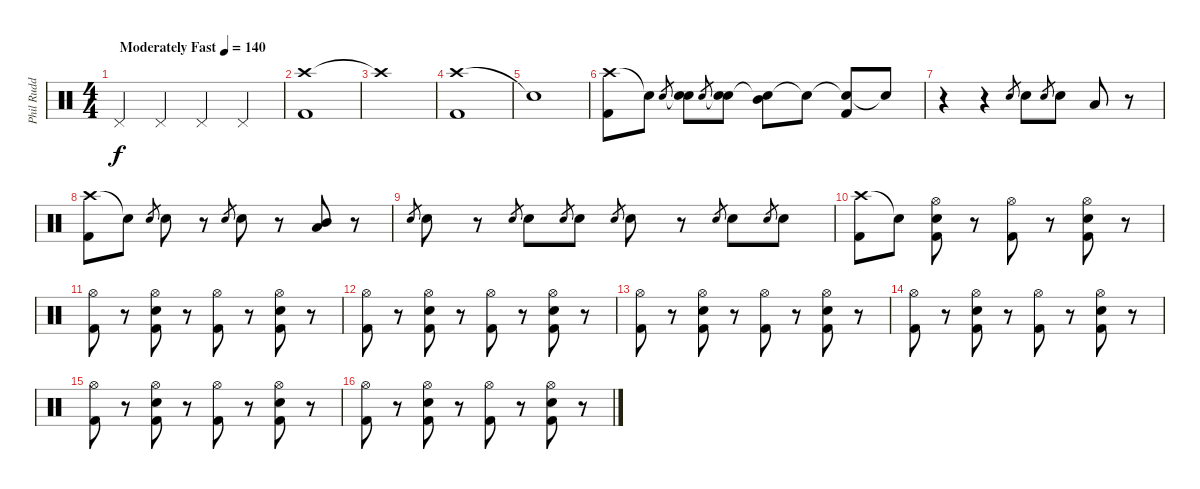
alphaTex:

\track ("Phil Rudd" "Phil Rudd") {instrument percussion}
\staff {score}
\articulation defaults
\ts (4 4)
\tempo (140 "Moderately Fast")
\clef neutral
\ks c "Pedal Hi-Hat (hit)".4{dy f} "Pedal Hi-Hat (hit)".4 "Pedal Hi-Hat (hit)".4 "Pedal Hi-Hat (hit)".4
|
("Crash high (hit)" "Kick (hit) 2").1 |
"Crash high (hit)"{t}.1 |
("Crash high (hit)" "Kick (hit) 2").1 |
"Snare (hit)"{t}.1 |
("Crash high (hit)" "Kick (hit) 2").8 "Snare (hit)"{t}.8 "Electric Snare (hit)".8{gr} ("Snare (hit)"{t} "Electric Snare (hit)").8 "Electric Snare (hit)".8{gr} ("Snare (hit)"{t} "Electric Snare (hit)").8 ("Snare (hit)"{t} "Mid Tom (hit)").8 "Snare (hit)"{t}.8 ("Snare (hit)"{t} "Kick (hit) 2").8 "Snare (hit)"{t}.8 |
r.4 r.4 "Electric Snare (hit)".8{gr} "Electric Snare (hit)".8 "Electric Snare (hit)".8{gr} "Electric Snare (hit)".8 "Low Tom (hit)".8 r.8 |
("Crash high (hit)" "Kick (hit) 2").8 "Snare (hit)"{t}.8 "Electric Snare (hit)".8{gr} "Electric Snare (hit)".8 r.8 "Electric Snare (hit)".8{gr} "Electric Snare (hit)".8 r.8 ("Mid Tom (hit)" "Low Tom (hit)").8 r.8 |
"Electric Snare (hit)".8{gr} "Electric Snare (hit)".8 r.8 "Electric Snare (hit)".8{gr} "Electric Snare (hit)".8 "Electric Snare (hit)".8{gr} "Electric Snare (hit)".8 "Electric Snare (hit)".8{gr} "Electric Snare (hit)".8 r.8 "Electric Snare (hit)".8{gr} "Electric Snare (hit)".8 "Electric Snare (hit)".8{gr} "Electric Snare (hit)".8 |
("Crash high (hit)" "Kick (hit) 2").8 "Snare (hit)"{t}.8 ("Hi-Hat (open)" "Electric Snare (hit)" "Kick (hit) 2").8 r.8 ("Hi-Hat (open)" "Kick (hit) 2").8 r.8 ("Hi-Hat (open)" "Electric Snare (hit)" "Kick (hit) 2").8 r.8 |
("Hi-Hat (open)" "Kick (hit) 2").8 r.8 ("Hi-Hat (open)" "Electric Snare (hit)" "Kick (hit) 2").8 r.8 ("Hi-Hat (open)" "Kick (hit) 2").8 r.8 ("Hi-Hat (open)" "Electric Snare (hit)" "Kick (hit) 2").8 r.8 |
("Hi-Hat (open)" "Kick (hit) 2").8 r.8 ("Hi-Hat (open)" "Electric Snare (hit)" "Kick (hit) 2").8 r.8 ("Hi-Hat (open)" "Kick (hit) 2").8 r.8 ("Hi-Hat (open)" "Electric Snare (hit)" "Kick (hit) 2").8 r.8 |
("Hi-Hat (open)" "Kick (hit) 2").8 r.8 ("Hi-Hat (open)" "Electric Snare (hit)" "Kick (hit) 2").8 r.8 ("Hi-Hat (open)" "Kick (hit) 2").8 r.8 ("Hi-Hat (open)" "Electric Snare (hit)" "Kick (hit) 2").8 r.8 |
("Hi-Hat (open)" "Kick (hit) 2").8 r.8 ("Hi-Hat (open)" "Electric Snare (hit)" "Kick (hit) 2").8 r.8 ("Hi-Hat (open)" "Kick (hit) 2").8 r.8 ("Hi-Hat (open)" "Electric Snare (hit)" "Kick (hit) 2").8 r.8 |
("Hi-Hat (open)" "Kick (hit) 2").8 r.8 ("Hi-Hat (open)" "Electric Snare (hit)" "Kick (hit) 2").8 r.8 ("Hi-Hat (open)" "Kick (hit) 2").8 r.8 ("Hi-Hat (open)" "Electric Snare (hit)" "Kick (hit) 2").8 r.8 |
("Hi-Hat (open)" "Kick (hit) 2").8 r.8 ("Hi-Hat (open)" "Electric Snare (hit)" "Kick (hit) 2").8 r.8 ("Hi-Hat (open)" "Kick (hit) 2").8 r.8 ("Hi-Hat (open)" "Electric Snare (hit)" "Kick (hit) 2").8 r.8
